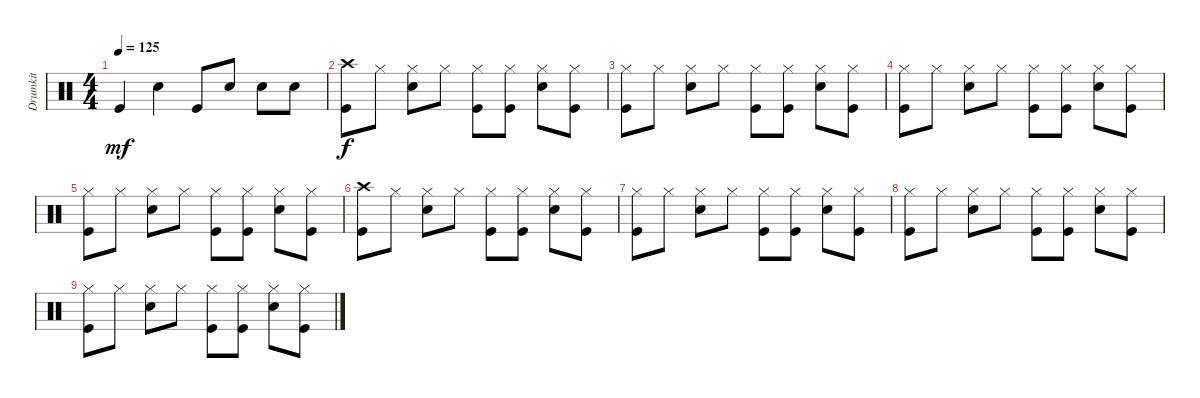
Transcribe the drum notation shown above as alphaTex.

\track ("Drumkit" "Drumkit") {instrument percussion}
\staff {score}
\articulation defaults
\ts (4 4)
\tempo 125
\clef neutral
\ks c "Kick (hit)".4{dy mf} "Snare (hit) 2".4 "Kick (hit)".8 "Snare (hit) 2".8 "Snare (hit) 2".8 "Snare (hit) 2".8
|
("Crash high (hit)" "Kick (hit)").8{dy f} "Hi-Hat (closed)".8 ("Hi-Hat (closed)" "Snare (hit) 2").8 "Hi-Hat (closed)".8 ("Hi-Hat (closed)" "Kick (hit)").8 ("Hi-Hat (closed)" "Kick (hit)").8 ("Hi-Hat (closed)" "Snare (hit) 2").8 ("Hi-Hat (closed)" "Kick (hit)").8 |
("Hi-Hat (closed)" "Kick (hit)").8 "Hi-Hat (closed)".8 ("Hi-Hat (closed)" "Snare (hit) 2").8 "Hi-Hat (closed)".8 ("Hi-Hat (closed)" "Kick (hit)").8 ("Hi-Hat (closed)" "Kick (hit)").8 ("Hi-Hat (closed)" "Snare (hit) 2").8 ("Hi-Hat (closed)" "Kick (hit)").8 |
("Kick (hit)" "Hi-Hat (closed)").8 "Hi-Hat (closed)".8 ("Hi-Hat (closed)" "Snare (hit) 2").8 "Hi-Hat (closed)".8 ("Hi-Hat (closed)" "Kick (hit)").8 ("Hi-Hat (closed)" "Kick (hit)").8 ("Hi-Hat (closed)" "Snare (hit) 2").8 ("Hi-Hat (closed)" "Kick (hit)").8 |
("Hi-Hat (closed)" "Kick (hit)").8 "Hi-Hat (closed)".8 ("Hi-Hat (closed)" "Snare (hit) 2").8 "Hi-Hat (closed)".8 ("Hi-Hat (closed)" "Kick (hit)").8 ("Hi-Hat (closed)" "Kick (hit)").8 ("Hi-Hat (closed)" "Snare (hit) 2").8 ("Hi-Hat (closed)" "Kick (hit)").8 |
("Crash high (hit)" "Kick (hit)").8 "Hi-Hat (closed)".8 ("Hi-Hat (closed)" "Snare (hit) 2").8 "Hi-Hat (closed)".8 ("Hi-Hat (closed)" "Kick (hit)").8 ("Hi-Hat (closed)" "Kick (hit)").8 ("Hi-Hat (closed)" "Snare (hit) 2").8 ("Hi-Hat (closed)" "Kick (hit)").8 |
("Hi-Hat (closed)" "Kick (hit)").8 "Hi-Hat (closed)".8 ("Hi-Hat (closed)" "Snare (hit) 2").8 "Hi-Hat (closed)".8 ("Hi-Hat (closed)" "Kick (hit)").8 ("Hi-Hat (closed)" "Kick (hit)").8 ("Hi-Hat (closed)" "Snare (hit) 2").8 ("Hi-Hat (closed)" "Kick (hit)").8 |
("Kick (hit)" "Hi-Hat (closed)").8 "Hi-Hat (closed)".8 ("Hi-Hat (closed)" "Snare (hit) 2").8 "Hi-Hat (closed)".8 ("Hi-Hat (closed)" "Kick (hit)").8 ("Hi-Hat (closed)" "Kick (hit)").8 ("Hi-Hat (closed)" "Snare (hit) 2").8 ("Hi-Hat (closed)" "Kick (hit)").8 |
("Hi-Hat (closed)" "Kick (hit)").8 "Hi-Hat (closed)".8 ("Hi-Hat (closed)" "Snare (hit) 2").8 "Hi-Hat (closed)".8 ("Hi-Hat (closed)" "Kick (hit)").8 ("Hi-Hat (closed)" "Kick (hit)").8 ("Hi-Hat (closed)" "Snare (hit) 2").8 ("Hi-Hat (closed)" "Kick (hit)").8
